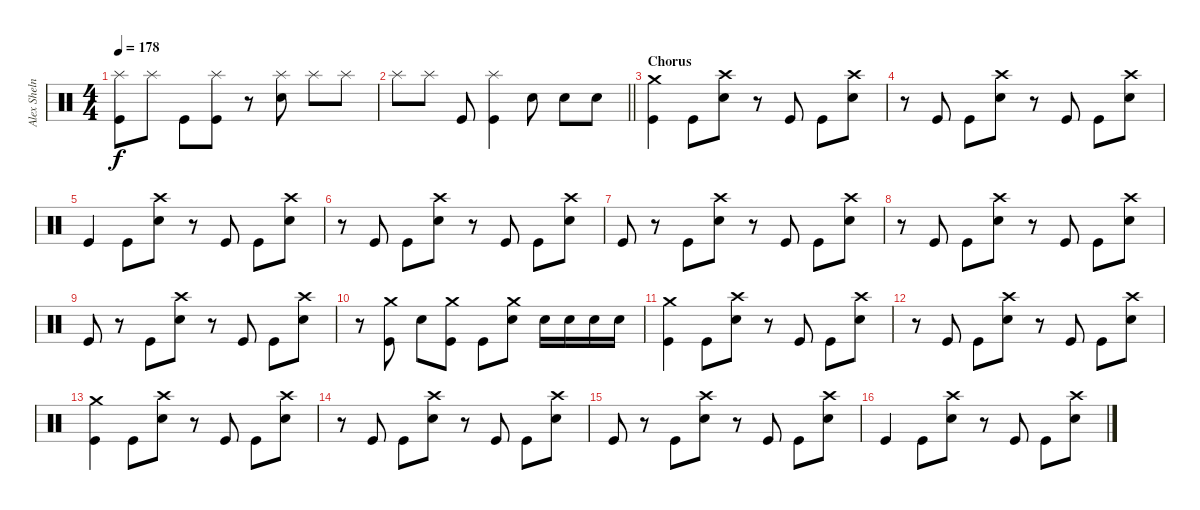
\track ("Alex Shelnut" "Alex Sheln") {instrument percussion}
\staff {score}
\articulation defaults
\ts (4 4)
\tempo 178
\clef neutral
\ks c
("Splash (hit)" "Kick (hit)").8{dy f} "Splash (hit)".8 "Kick (hit)".8 ("Splash (hit)" "Kick (hit)").8 r.8 ("Splash (hit)" "Electric Snare (hit)").8 "Splash (hit)".8 "Splash (hit)".8 |
\barLineRight lightlight "Splash (hit)".8 "Splash (hit)".8 "Kick (hit)".8
("Splash (hit)" "Kick (hit)").4 "Electric Snare (hit)".8 "Electric Snare (hit)".8 "Electric Snare (hit)".8 |
\section ("" "Chorus")
("Crash medium (hit)" "Kick (hit)").4 "Kick (hit)".8 ("Crash high (hit)" "Electric Snare (hit)").8 r.8 "Kick (hit)".8 "Kick (hit)".8 ("Crash high (hit)" "Electric Snare (hit)").8 |
r.8 "Kick (hit)".8 "Kick (hit)".8 ("Crash high (hit)" "Electric Snare (hit)").8 r.8 "Kick (hit)".8 "Kick (hit)".8 ("Crash high (hit)" "Electric Snare (hit)").8 |
"Kick (hit)".4 "Kick (hit)".8 ("Crash high (hit)" "Electric Snare (hit)").8 r.8 "Kick (hit)".8 "Kick (hit)".8 ("Crash high (hit)" "Electric Snare (hit)").8 |
r.8 "Kick (hit)".8 "Kick (hit)".8 ("Crash high (hit)" "Electric Snare (hit)").8 r.8 "Kick (hit)".8 "Kick (hit)".8 ("Crash high (hit)" "Electric Snare (hit)").8 |
"Kick (hit)".8 r.8 "Kick (hit)".8 ("Crash high (hit)" "Electric Snare (hit)").8 r.8 "Kick (hit)".8 "Kick (hit)".8 ("Crash high (hit)" "Electric Snare (hit)").8 |
r.8 "Kick (hit)".8 "Kick (hit)".8 ("Crash high (hit)" "Electric Snare (hit)").8 r.8 "Kick (hit)".8 "Kick (hit)".8 ("Crash high (hit)" "Electric Snare (hit)").8 |
"Kick (hit)".8 r.8 "Kick (hit)".8 ("Crash high (hit)" "Electric Snare (hit)").8 r.8 "Kick (hit)".8 "Kick (hit)".8 ("Crash high (hit)" "Electric Snare (hit)").8 |
r.8 ("Crash medium (hit)" "Kick (hit)").8 "Electric Snare (hit)".8 ("Crash medium (hit)" "Kick (hit)").8 "Kick (hit)".8 ("Crash medium (hit)" "Electric Snare (hit)").8 "Electric Snare (hit)".16 "Electric Snare (hit)".16 "Electric Snare (hit)".16 "Electric Snare (hit)".16 |
("Crash medium (hit)" "Kick (hit)").4 "Kick (hit)".8 ("Crash high (hit)" "Electric Snare (hit)").8 r.8 "Kick (hit)".8 "Kick (hit)".8 ("Crash high (hit)" "Electric Snare (hit)").8 |
r.8 "Kick (hit)".8 "Kick (hit)".8 ("Crash high (hit)" "Electric Snare (hit)").8 r.8 "Kick (hit)".8 "Kick (hit)".8 ("Crash high (hit)" "Electric Snare (hit)").8 |
("Crash medium (hit)" "Kick (hit)").4 "Kick (hit)".8 ("Crash high (hit)" "Electric Snare (hit)").8 r.8 "Kick (hit)".8 "Kick (hit)".8 ("Crash high (hit)" "Electric Snare (hit)").8 |
r.8 "Kick (hit)".8 "Kick (hit)".8 ("Crash high (hit)" "Electric Snare (hit)").8 r.8 "Kick (hit)".8 "Kick (hit)".8 ("Crash high (hit)" "Electric Snare (hit)").8 |
"Kick (hit)".8 r.8 "Kick (hit)".8 ("Crash high (hit)" "Electric Snare (hit)").8 r.8 "Kick (hit)".8 "Kick (hit)".8 ("Crash high (hit)" "Electric Snare (hit)").8 |
"Kick (hit)".4 "Kick (hit)".8 ("Crash high (hit)" "Electric Snare (hit)").8 r.8 "Kick (hit)".8 "Kick (hit)".8 ("Crash high (hit)" "Electric Snare (hit)").8
